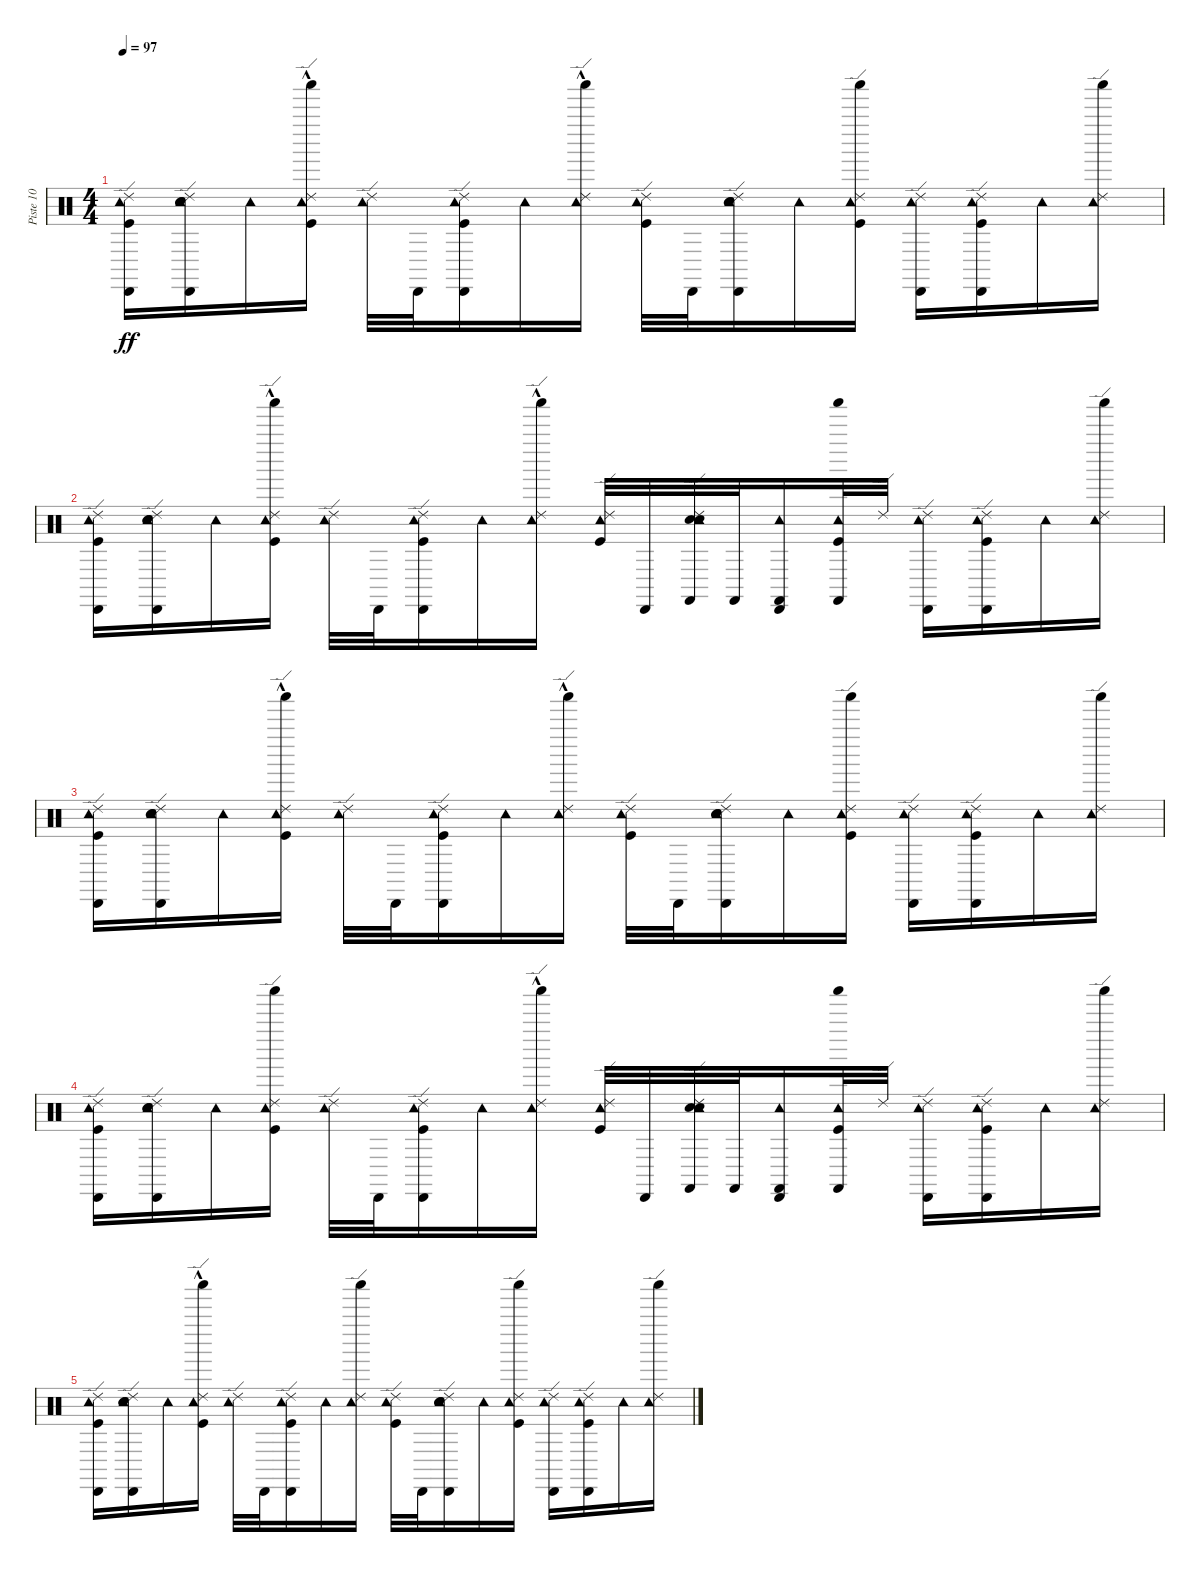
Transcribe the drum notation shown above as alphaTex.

\track ("Piste 10" "Piste 10") {instrument percussion}
\staff {score}
\articulation defaults
\ts (4 4)
\tempo 97
\clef neutral
\ks c
("Cabasa (hit)" "Kick (hit)" "Tambourine (hit)" "Ride (edge) 2").16{dy ff} ("Cabasa (hit)" "Hand Clap (hit)" "Electric Snare (hit)" "Tambourine (hit)" "Ride (edge) 2").16 "Tambourine (hit)".16 ("Shaker (hit)"{hac} "Kick (hit)" "Tambourine (hit)" "Ride (edge) 2").16 ("Tambourine (hit)" "Ride (edge) 2").32 "Cabasa (hit)".32 ("Cabasa (hit)" "Kick (hit)" "Tambourine (hit)" "Ride (edge) 2").16 "Tambourine (hit)".16 ("Shaker (hit)"{hac} "Tambourine (hit)" "Ride (edge) 2").16 ("Kick (hit)" "Tambourine (hit)" "Ride (edge) 2").32 "Cabasa (hit)".32 ("Cabasa (hit)" "Hand Clap (hit)" "Electric Snare (hit)" "Tambourine (hit)" "Ride (edge) 2").16 "Tambourine (hit)".16 ("Shaker (hit)" "Kick (hit)" "Tambourine (hit)" "Ride (edge) 2").16 ("Cabasa (hit)" "Tambourine (hit)" "Ride (edge) 2").16 ("Cabasa (hit)" "Kick (hit)" "Tambourine (hit)" "Ride (edge) 2").16 "Tambourine (hit)".16 ("Shaker (hit)" "Tambourine (hit)" "Ride (edge) 2").16 |
("Cabasa (hit)" "Kick (hit)" "Tambourine (hit)" "Ride (edge) 2").16 ("Cabasa (hit)" "Hand Clap (hit)" "Electric Snare (hit)" "Tambourine (hit)" "Ride (edge) 2").16 "Tambourine (hit)".16 ("Shaker (hit)"{hac} "Kick (hit)" "Tambourine (hit)" "Ride (edge) 2").16 ("Tambourine (hit)" "Ride (edge) 2").32 "Cabasa (hit)".32 ("Cabasa (hit)" "Kick (hit)" "Tambourine (hit)" "Ride (edge) 2").16 "Tambourine (hit)".16 ("Shaker (hit)"{hac} "Tambourine (hit)" "Ride (edge) 2").16 ("Kick (hit)" "Tambourine (hit)" "Ride (edge) 2").32 "Cabasa (hit)".32 ("Castanets (hit)" "Hand Clap (hit)" "Electric Snare (hit)" "Tambourine (hit)" "Ride (edge) 2").32 "Castanets (hit)".32 ("Cabasa (hit)" "Castanets (hit)" "Tambourine (hit)").16 ("Shaker (hit)" "Castanets (hit)" "Kick (hit)" "Tambourine (hit)").32 "Ride (edge) 2".32 ("Cabasa (hit)" "Tambourine (hit)" "Ride (edge) 2").16 ("Cabasa (hit)" "Kick (hit)" "Tambourine (hit)" "Ride (edge) 2").16 "Tambourine (hit)".16 ("Shaker (hit)" "Tambourine (hit)" "Ride (edge) 2").16 |
("Cabasa (hit)" "Kick (hit)" "Tambourine (hit)" "Ride (edge) 2").16 ("Cabasa (hit)" "Hand Clap (hit)" "Electric Snare (hit)" "Tambourine (hit)" "Ride (edge) 2").16 "Tambourine (hit)".16 ("Shaker (hit)"{hac} "Kick (hit)" "Tambourine (hit)" "Ride (edge) 2").16 ("Tambourine (hit)" "Ride (edge) 2").32 "Cabasa (hit)".32 ("Cabasa (hit)" "Kick (hit)" "Tambourine (hit)" "Ride (edge) 2").16 "Tambourine (hit)".16 ("Shaker (hit)"{hac} "Tambourine (hit)" "Ride (edge) 2").16 ("Kick (hit)" "Tambourine (hit)" "Ride (edge) 2").32 "Cabasa (hit)".32 ("Cabasa (hit)" "Hand Clap (hit)" "Electric Snare (hit)" "Tambourine (hit)" "Ride (edge) 2").16 "Tambourine (hit)".16 ("Shaker (hit)" "Kick (hit)" "Tambourine (hit)" "Ride (edge) 2").16 ("Cabasa (hit)" "Tambourine (hit)" "Ride (edge) 2").16 ("Cabasa (hit)" "Kick (hit)" "Tambourine (hit)" "Ride (edge) 2").16 "Tambourine (hit)".16 ("Shaker (hit)" "Tambourine (hit)" "Ride (edge) 2").16 |
("Cabasa (hit)" "Kick (hit)" "Tambourine (hit)" "Ride (edge) 2").16 ("Cabasa (hit)" "Hand Clap (hit)" "Electric Snare (hit)" "Tambourine (hit)" "Ride (edge) 2").16 "Tambourine (hit)".16 ("Shaker (hit)" "Kick (hit)" "Tambourine (hit)" "Ride (edge) 2").16 ("Tambourine (hit)" "Ride (edge) 2").32 "Cabasa (hit)".32 ("Cabasa (hit)" "Kick (hit)" "Tambourine (hit)" "Ride (edge) 2").16 "Tambourine (hit)".16 ("Shaker (hit)"{hac} "Tambourine (hit)" "Ride (edge) 2").16 ("Kick (hit)" "Tambourine (hit)" "Ride (edge) 2").32 "Cabasa (hit)".32 ("Castanets (hit)" "Hand Clap (hit)" "Electric Snare (hit)" "Tambourine (hit)" "Ride (edge) 2").32 "Castanets (hit)".32 ("Cabasa (hit)" "Castanets (hit)" "Tambourine (hit)").16 ("Shaker (hit)" "Castanets (hit)" "Kick (hit)" "Tambourine (hit)").32 "Ride (edge) 2".32 ("Cabasa (hit)" "Tambourine (hit)" "Ride (edge) 2").16 ("Cabasa (hit)" "Kick (hit)" "Tambourine (hit)" "Ride (edge) 2").16 "Tambourine (hit)".16 ("Shaker (hit)" "Tambourine (hit)" "Ride (edge) 2").16 |
("Cabasa (hit)" "Kick (hit)" "Tambourine (hit)" "Ride (edge) 2").16 ("Cabasa (hit)" "Hand Clap (hit)" "Electric Snare (hit)" "Tambourine (hit)" "Ride (edge) 2").16 "Tambourine (hit)".16 ("Shaker (hit)"{hac} "Kick (hit)" "Tambourine (hit)" "Ride (edge) 2").16 ("Tambourine (hit)" "Ride (edge) 2").32 "Cabasa (hit)".32 ("Cabasa (hit)" "Kick (hit)" "Tambourine (hit)" "Ride (edge) 2").16 "Tambourine (hit)".16 ("Shaker (hit)" "Tambourine (hit)" "Ride (edge) 2").16 ("Kick (hit)" "Tambourine (hit)" "Ride (edge) 2").32 "Cabasa (hit)".32 ("Cabasa (hit)" "Hand Clap (hit)" "Electric Snare (hit)" "Tambourine (hit)" "Ride (edge) 2").16 "Tambourine (hit)".16 ("Shaker (hit)" "Kick (hit)" "Tambourine (hit)" "Ride (edge) 2").16 ("Cabasa (hit)" "Tambourine (hit)" "Ride (edge) 2").16 ("Cabasa (hit)" "Kick (hit)" "Tambourine (hit)" "Ride (edge) 2").16 "Tambourine (hit)".16 ("Shaker (hit)" "Tambourine (hit)" "Ride (edge) 2").16
